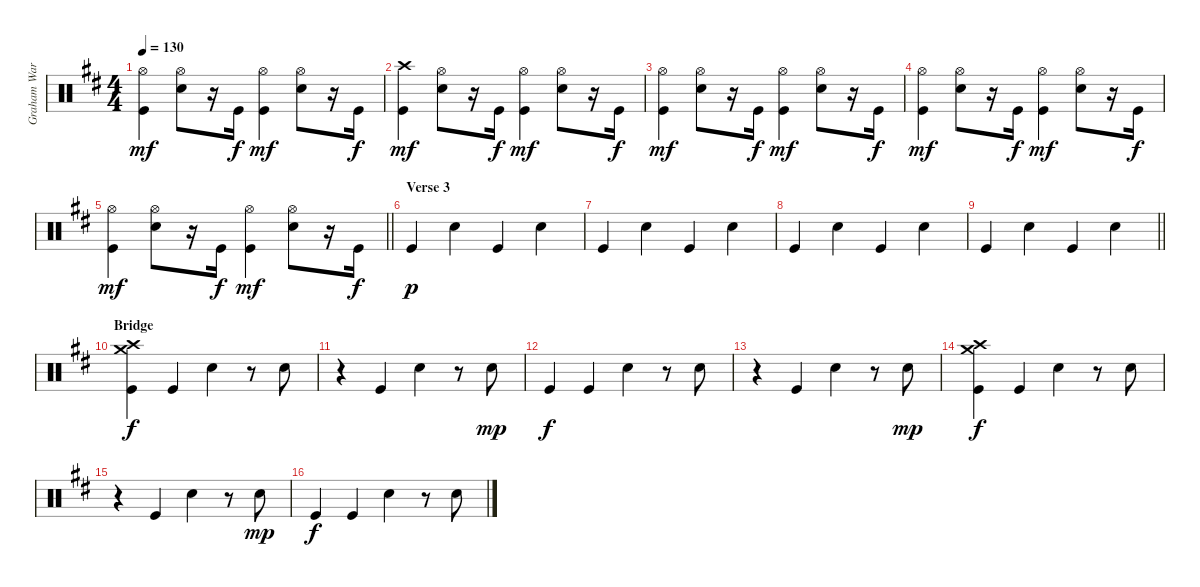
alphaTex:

\track ("Graham Ward (DRUMS)" "Graham War") {instrument percussion}
\staff {score}
\articulation defaults
\ts (4 4)
\tempo 130
\clef neutral
\ks d
("Hi-Hat (open)" "Kick (hit)").4{dy mf} ("Snare (hit) 2" "Hi-Hat (open)").8 r.16 "Kick (hit)".16{dy f} ("Hi-Hat (open)" "Kick (hit)").4{dy mf} ("Snare (hit) 2" "Hi-Hat (open)").8 r.16 "Kick (hit)".16{dy f} |
("Crash high (hit)" "Kick (hit)").4{dy mf} ("Snare (hit) 2" "Hi-Hat (open)").8 r.16 "Kick (hit)".16{dy f} ("Hi-Hat (open)" "Kick (hit)").4{dy mf} ("Snare (hit) 2" "Hi-Hat (open)").8 r.16 "Kick (hit)".16{dy f} |
("Hi-Hat (open)" "Kick (hit)").4{dy mf} ("Snare (hit) 2" "Hi-Hat (open)").8 r.16 "Kick (hit)".16{dy f} ("Hi-Hat (open)" "Kick (hit)").4{dy mf} ("Snare (hit) 2" "Hi-Hat (open)").8 r.16 "Kick (hit)".16{dy f} |
("Hi-Hat (open)" "Kick (hit)").4{dy mf} ("Snare (hit) 2" "Hi-Hat (open)").8 r.16 "Kick (hit)".16{dy f} ("Hi-Hat (open)" "Kick (hit)").4{dy mf} ("Snare (hit) 2" "Hi-Hat (open)").8 r.16 "Kick (hit)".16{dy f} |
\barLineRight lightlight
("Hi-Hat (open)" "Kick (hit)").4{dy mf} ("Snare (hit) 2" "Hi-Hat (open)").8 r.16 "Kick (hit)".16{dy f} ("Hi-Hat (open)" "Kick (hit)").4{dy mf} ("Snare (hit) 2" "Hi-Hat (open)").8 r.16 "Kick (hit)".16{dy f} |
\section ("" "Verse 3")
"Kick (hit)".4{dy p} "Electric Snare (hit)".4 "Kick (hit)".4 "Electric Snare (hit)".4 |
"Kick (hit)".4 "Electric Snare (hit)".4 "Kick (hit)".4 "Electric Snare (hit)".4 |
"Kick (hit)".4 "Electric Snare (hit)".4 "Kick (hit)".4 "Electric Snare (hit)".4 |
\barLineRight lightlight "Kick (hit)".4 "Electric Snare (hit)".4 "Kick (hit)".4 "Electric Snare (hit)".4
|
\section ("" "Bridge")
("Crash medium (hit)" "Crash high (hit)" "Kick (hit)").4{dy f} "Kick (hit)".4 "Electric Snare (hit)".4 r.8 "Electric Snare (hit)".8 |
r.4 "Kick (hit)".4 "Electric Snare (hit)".4 r.8 "Electric Snare (hit)".8{dy mp} |
"Kick (hit)".4{dy f} "Kick (hit)".4 "Electric Snare (hit)".4 r.8 "Electric Snare (hit)".8 |
r.4 "Kick (hit)".4 "Electric Snare (hit)".4 r.8 "Electric Snare (hit)".8{dy mp} |
("Crash medium (hit)" "Crash high (hit)" "Kick (hit)").4{dy f} "Kick (hit)".4 "Electric Snare (hit)".4 r.8 "Electric Snare (hit)".8 |
r.4 "Kick (hit)".4 "Electric Snare (hit)".4 r.8 "Electric Snare (hit)".8{dy mp} |
"Kick (hit)".4{dy f} "Kick (hit)".4 "Electric Snare (hit)".4 r.8 "Electric Snare (hit)".8
